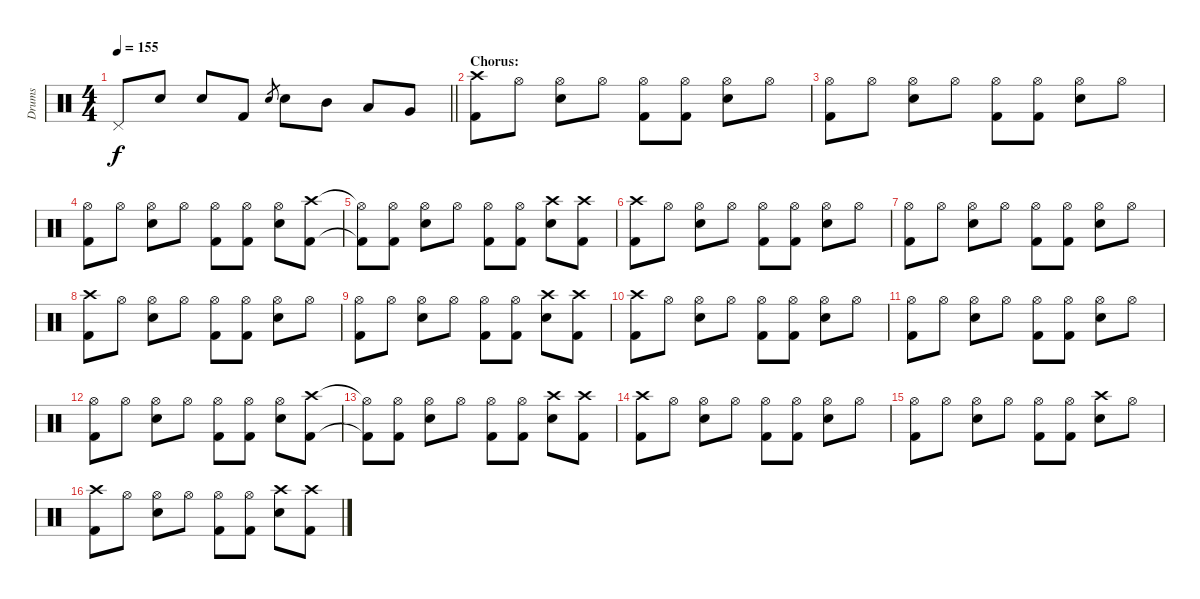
\track ("Drums" "Drums") {instrument percussion}
\staff {score}
\articulation defaults
\ts (4 4)
\tempo 155
\clef neutral
\barLineRight lightlight
\ks c "Pedal Hi-Hat (hit)".8{dy f} "Electric Snare (hit)".8 "Electric Snare (hit)".8 "Kick (hit) 2".8 "Electric Snare (hit)".8{gr} "Electric Snare (hit)".8 "Mid Tom (hit)".8 "Low Tom (hit)".8 "Very Low Tom (hit)".8
|
\section ("" "Chorus:")
("Crash high (hit)" "Kick (hit) 2").8 "Hi-Hat (open)".8 ("Hi-Hat (open)" "Electric Snare (hit)").8 "Hi-Hat (open)".8 ("Hi-Hat (open)" "Kick (hit) 2").8 ("Hi-Hat (open)" "Kick (hit) 2").8 ("Hi-Hat (open)" "Electric Snare (hit)").8 "Hi-Hat (open)".8 |
("Hi-Hat (open)" "Kick (hit) 2").8 "Hi-Hat (open)".8 ("Hi-Hat (open)" "Electric Snare (hit)").8 "Hi-Hat (open)".8 ("Hi-Hat (open)" "Kick (hit) 2").8 ("Hi-Hat (open)" "Kick (hit) 2").8 ("Hi-Hat (open)" "Electric Snare (hit)").8 "Hi-Hat (open)".8 |
("Hi-Hat (open)" "Kick (hit) 2").8 "Hi-Hat (open)".8 ("Hi-Hat (open)" "Electric Snare (hit)").8 "Hi-Hat (open)".8 ("Hi-Hat (open)" "Kick (hit) 2").8 ("Hi-Hat (open)" "Kick (hit) 2").8 ("Hi-Hat (open)" "Electric Snare (hit)").8 ("Crash high (hit)" "Kick (hit) 2").8 |
("Hi-Hat (open)"{t} "Kick (hit) 2"{t}).8 ("Hi-Hat (open)" "Kick (hit) 2").8 ("Hi-Hat (open)" "Electric Snare (hit)").8 "Hi-Hat (open)".8 ("Hi-Hat (open)" "Kick (hit) 2").8 ("Hi-Hat (open)" "Kick (hit) 2").8 ("Crash high (hit)" "Electric Snare (hit)").8 ("Crash high (hit)" "Kick (hit) 2").8 |
("Crash high (hit)" "Kick (hit) 2").8 "Hi-Hat (open)".8 ("Hi-Hat (open)" "Electric Snare (hit)").8 "Hi-Hat (open)".8 ("Hi-Hat (open)" "Kick (hit) 2").8 ("Hi-Hat (open)" "Kick (hit) 2").8 ("Hi-Hat (open)" "Electric Snare (hit)").8 "Hi-Hat (open)".8 |
("Hi-Hat (open)" "Kick (hit) 2").8 "Hi-Hat (open)".8 ("Hi-Hat (open)" "Electric Snare (hit)").8 "Hi-Hat (open)".8 ("Hi-Hat (open)" "Kick (hit) 2").8 ("Hi-Hat (open)" "Kick (hit) 2").8 ("Hi-Hat (open)" "Electric Snare (hit)").8 "Hi-Hat (open)".8 |
("Crash high (hit)" "Kick (hit) 2").8 "Hi-Hat (open)".8 ("Hi-Hat (open)" "Electric Snare (hit)").8 "Hi-Hat (open)".8 ("Hi-Hat (open)" "Kick (hit) 2").8 ("Hi-Hat (open)" "Kick (hit) 2").8 ("Hi-Hat (open)" "Electric Snare (hit)").8 "Hi-Hat (open)".8 |
("Hi-Hat (open)" "Kick (hit) 2").8 "Hi-Hat (open)".8 ("Hi-Hat (open)" "Electric Snare (hit)").8 "Hi-Hat (open)".8 ("Hi-Hat (open)" "Kick (hit) 2").8 ("Hi-Hat (open)" "Kick (hit) 2").8 ("Crash high (hit)" "Electric Snare (hit)").8 ("Crash high (hit)" "Kick (hit) 2").8 |
("Crash high (hit)" "Kick (hit) 2").8 "Hi-Hat (open)".8 ("Hi-Hat (open)" "Electric Snare (hit)").8 "Hi-Hat (open)".8 ("Hi-Hat (open)" "Kick (hit) 2").8 ("Hi-Hat (open)" "Kick (hit) 2").8 ("Hi-Hat (open)" "Electric Snare (hit)").8 "Hi-Hat (open)".8 |
("Hi-Hat (open)" "Kick (hit) 2").8 "Hi-Hat (open)".8 ("Hi-Hat (open)" "Electric Snare (hit)").8 "Hi-Hat (open)".8 ("Hi-Hat (open)" "Kick (hit) 2").8 ("Hi-Hat (open)" "Kick (hit) 2").8 ("Hi-Hat (open)" "Electric Snare (hit)").8 "Hi-Hat (open)".8 |
("Hi-Hat (open)" "Kick (hit) 2").8 "Hi-Hat (open)".8 ("Hi-Hat (open)" "Electric Snare (hit)").8 "Hi-Hat (open)".8 ("Hi-Hat (open)" "Kick (hit) 2").8 ("Hi-Hat (open)" "Kick (hit) 2").8 ("Hi-Hat (open)" "Electric Snare (hit)").8 ("Crash high (hit)" "Kick (hit) 2").8 |
("Hi-Hat (open)"{t} "Kick (hit) 2"{t}).8 ("Hi-Hat (open)" "Kick (hit) 2").8 ("Hi-Hat (open)" "Electric Snare (hit)").8 "Hi-Hat (open)".8 ("Hi-Hat (open)" "Kick (hit) 2").8 ("Hi-Hat (open)" "Kick (hit) 2").8 ("Crash high (hit)" "Electric Snare (hit)").8 ("Crash high (hit)" "Kick (hit) 2").8 |
("Crash high (hit)" "Kick (hit) 2").8 "Hi-Hat (open)".8 ("Hi-Hat (open)" "Electric Snare (hit)").8 "Hi-Hat (open)".8 ("Hi-Hat (open)" "Kick (hit) 2").8 ("Hi-Hat (open)" "Kick (hit) 2").8 ("Hi-Hat (open)" "Electric Snare (hit)").8 "Hi-Hat (open)".8 |
("Hi-Hat (open)" "Kick (hit) 2").8 "Hi-Hat (open)".8 ("Hi-Hat (open)" "Electric Snare (hit)").8 "Hi-Hat (open)".8 ("Hi-Hat (open)" "Kick (hit) 2").8 ("Hi-Hat (open)" "Kick (hit) 2").8 ("Crash high (hit)" "Electric Snare (hit)").8 "Hi-Hat (open)".8 |
("Crash high (hit)" "Kick (hit) 2").8 "Hi-Hat (open)".8 ("Hi-Hat (open)" "Electric Snare (hit)").8 "Hi-Hat (open)".8 ("Hi-Hat (open)" "Kick (hit) 2").8 ("Hi-Hat (open)" "Kick (hit) 2").8 ("Crash high (hit)" "Electric Snare (hit)").8 ("Crash high (hit)" "Kick (hit) 2").8
